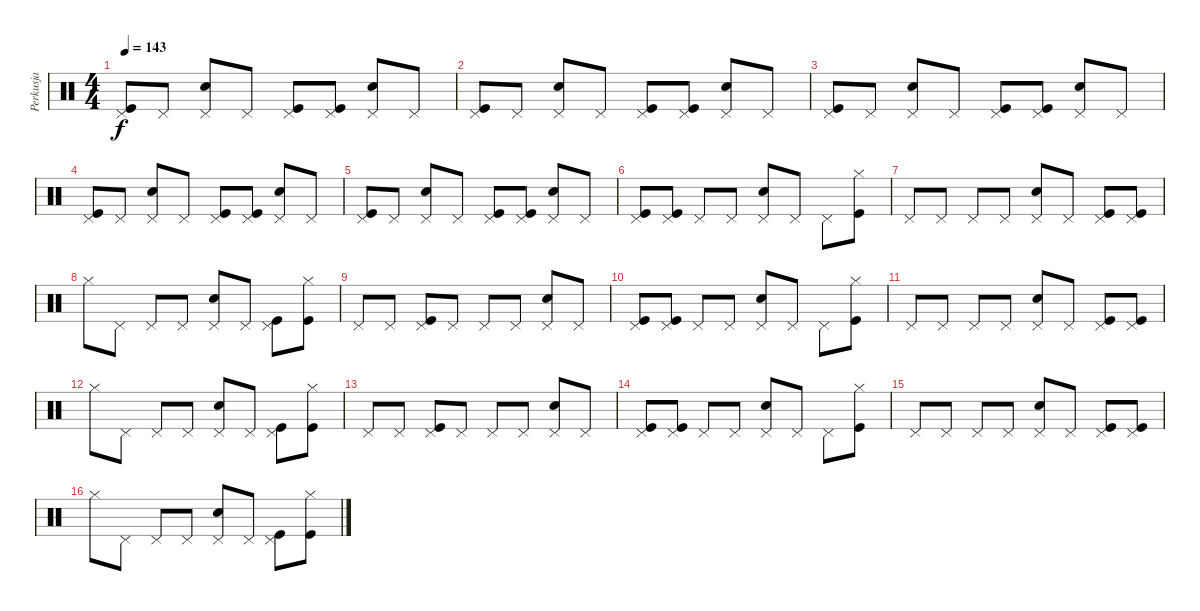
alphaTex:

\track ("Perkusja" "Perkusja") {instrument percussion}
\staff {score}
\articulation defaults
\ts (4 4)
\tempo 143
\clef neutral
\ks c
("Pedal Hi-Hat (hit)" "Kick (hit)").8{dy f} "Pedal Hi-Hat (hit)".8 ("Pedal Hi-Hat (hit)" "Snare (hit) 2").8 "Pedal Hi-Hat (hit)".8 ("Pedal Hi-Hat (hit)" "Kick (hit)").8 ("Pedal Hi-Hat (hit)" "Kick (hit)").8 ("Pedal Hi-Hat (hit)" "Snare (hit) 2").8 "Pedal Hi-Hat (hit)".8 |
("Pedal Hi-Hat (hit)" "Kick (hit)").8 "Pedal Hi-Hat (hit)".8 ("Pedal Hi-Hat (hit)" "Snare (hit) 2").8 "Pedal Hi-Hat (hit)".8 ("Pedal Hi-Hat (hit)" "Kick (hit)").8 ("Pedal Hi-Hat (hit)" "Kick (hit)").8 ("Pedal Hi-Hat (hit)" "Snare (hit) 2").8 "Pedal Hi-Hat (hit)".8 |
("Pedal Hi-Hat (hit)" "Kick (hit)").8 "Pedal Hi-Hat (hit)".8 ("Pedal Hi-Hat (hit)" "Snare (hit) 2").8 "Pedal Hi-Hat (hit)".8 ("Pedal Hi-Hat (hit)" "Kick (hit)").8 ("Pedal Hi-Hat (hit)" "Kick (hit)").8 ("Pedal Hi-Hat (hit)" "Snare (hit) 2").8 "Pedal Hi-Hat (hit)".8 |
("Pedal Hi-Hat (hit)" "Kick (hit)").8 "Pedal Hi-Hat (hit)".8 ("Pedal Hi-Hat (hit)" "Snare (hit) 2").8 "Pedal Hi-Hat (hit)".8 ("Pedal Hi-Hat (hit)" "Kick (hit)").8 ("Pedal Hi-Hat (hit)" "Kick (hit)").8 ("Pedal Hi-Hat (hit)" "Snare (hit) 2").8 "Pedal Hi-Hat (hit)".8 |
("Pedal Hi-Hat (hit)" "Kick (hit)").8 "Pedal Hi-Hat (hit)".8 ("Pedal Hi-Hat (hit)" "Snare (hit) 2").8 "Pedal Hi-Hat (hit)".8 ("Pedal Hi-Hat (hit)" "Kick (hit)").8 ("Pedal Hi-Hat (hit)" "Kick (hit)").8 ("Pedal Hi-Hat (hit)" "Snare (hit) 2").8 "Pedal Hi-Hat (hit)".8 |
("Pedal Hi-Hat (hit)" "Kick (hit)").8 ("Pedal Hi-Hat (hit)" "Kick (hit)").8 "Pedal Hi-Hat (hit)".8 "Pedal Hi-Hat (hit)".8 ("Pedal Hi-Hat (hit)" "Snare (hit) 2").8 "Pedal Hi-Hat (hit)".8 "Pedal Hi-Hat (hit)".8 ("Hi-Hat (closed)" "Kick (hit)").8 |
"Pedal Hi-Hat (hit)".8 "Pedal Hi-Hat (hit)".8 "Pedal Hi-Hat (hit)".8 "Pedal Hi-Hat (hit)".8 ("Pedal Hi-Hat (hit)" "Snare (hit) 2").8 "Pedal Hi-Hat (hit)".8 ("Pedal Hi-Hat (hit)" "Kick (hit)").8 ("Pedal Hi-Hat (hit)" "Kick (hit)").8 |
"Hi-Hat (closed)".8 "Pedal Hi-Hat (hit)".8 "Pedal Hi-Hat (hit)".8 "Pedal Hi-Hat (hit)".8 ("Pedal Hi-Hat (hit)" "Snare (hit) 2").8 "Pedal Hi-Hat (hit)".8 ("Pedal Hi-Hat (hit)" "Kick (hit)").8 ("Hi-Hat (closed)" "Kick (hit)").8 |
"Pedal Hi-Hat (hit)".8 "Pedal Hi-Hat (hit)".8 ("Pedal Hi-Hat (hit)" "Kick (hit)").8 "Pedal Hi-Hat (hit)".8 "Pedal Hi-Hat (hit)".8 "Pedal Hi-Hat (hit)".8 ("Pedal Hi-Hat (hit)" "Snare (hit) 2").8 "Pedal Hi-Hat (hit)".8 |
("Pedal Hi-Hat (hit)" "Kick (hit)").8 ("Pedal Hi-Hat (hit)" "Kick (hit)").8 "Pedal Hi-Hat (hit)".8 "Pedal Hi-Hat (hit)".8 ("Pedal Hi-Hat (hit)" "Snare (hit) 2").8 "Pedal Hi-Hat (hit)".8 "Pedal Hi-Hat (hit)".8 ("Hi-Hat (closed)" "Kick (hit)").8 |
"Pedal Hi-Hat (hit)".8 "Pedal Hi-Hat (hit)".8 "Pedal Hi-Hat (hit)".8 "Pedal Hi-Hat (hit)".8 ("Pedal Hi-Hat (hit)" "Snare (hit) 2").8 "Pedal Hi-Hat (hit)".8 ("Pedal Hi-Hat (hit)" "Kick (hit)").8 ("Pedal Hi-Hat (hit)" "Kick (hit)").8 |
"Hi-Hat (closed)".8 "Pedal Hi-Hat (hit)".8 "Pedal Hi-Hat (hit)".8 "Pedal Hi-Hat (hit)".8 ("Pedal Hi-Hat (hit)" "Snare (hit) 2").8 "Pedal Hi-Hat (hit)".8 ("Pedal Hi-Hat (hit)" "Kick (hit)").8 ("Hi-Hat (closed)" "Kick (hit)").8 |
"Pedal Hi-Hat (hit)".8 "Pedal Hi-Hat (hit)".8 ("Pedal Hi-Hat (hit)" "Kick (hit)").8 "Pedal Hi-Hat (hit)".8 "Pedal Hi-Hat (hit)".8 "Pedal Hi-Hat (hit)".8 ("Pedal Hi-Hat (hit)" "Snare (hit) 2").8 "Pedal Hi-Hat (hit)".8 |
("Pedal Hi-Hat (hit)" "Kick (hit)").8 ("Pedal Hi-Hat (hit)" "Kick (hit)").8 "Pedal Hi-Hat (hit)".8 "Pedal Hi-Hat (hit)".8 ("Pedal Hi-Hat (hit)" "Snare (hit) 2").8 "Pedal Hi-Hat (hit)".8 "Pedal Hi-Hat (hit)".8 ("Hi-Hat (closed)" "Kick (hit)").8 |
"Pedal Hi-Hat (hit)".8 "Pedal Hi-Hat (hit)".8 "Pedal Hi-Hat (hit)".8 "Pedal Hi-Hat (hit)".8 ("Pedal Hi-Hat (hit)" "Snare (hit) 2").8 "Pedal Hi-Hat (hit)".8 ("Pedal Hi-Hat (hit)" "Kick (hit)").8 ("Pedal Hi-Hat (hit)" "Kick (hit)").8 |
"Hi-Hat (closed)".8 "Pedal Hi-Hat (hit)".8 "Pedal Hi-Hat (hit)".8 "Pedal Hi-Hat (hit)".8 ("Pedal Hi-Hat (hit)" "Snare (hit) 2").8 "Pedal Hi-Hat (hit)".8 ("Pedal Hi-Hat (hit)" "Kick (hit)").8 ("Hi-Hat (closed)" "Kick (hit)").8
